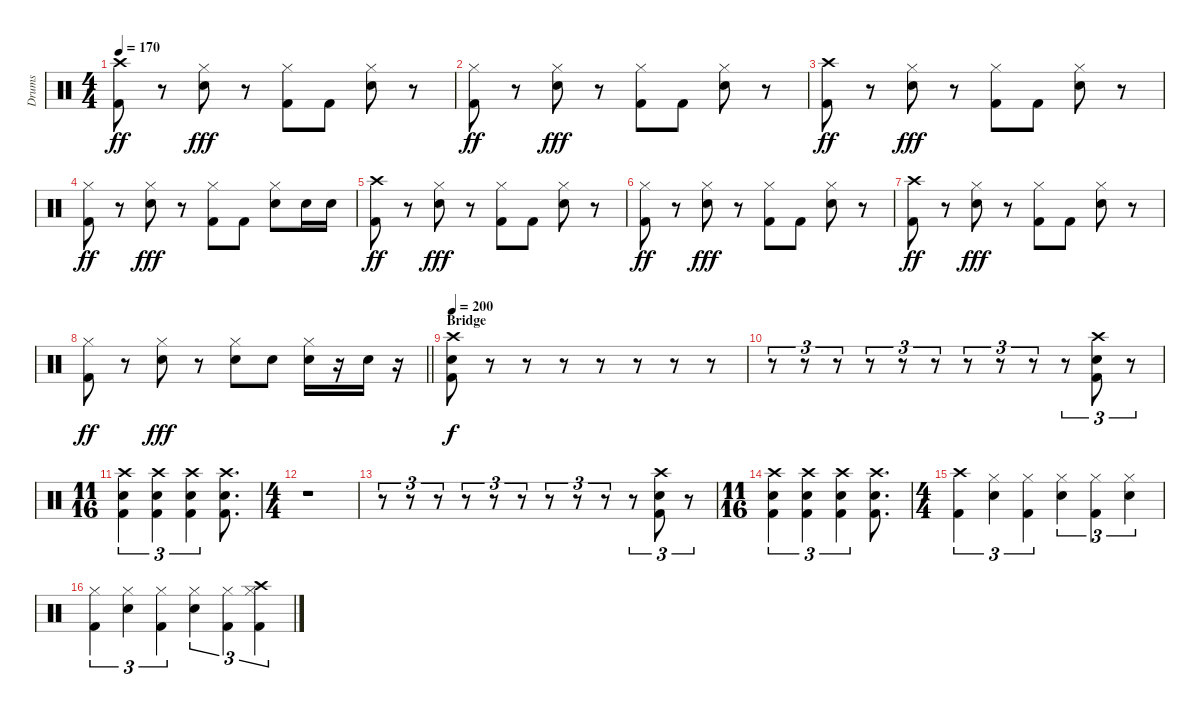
\track ("Drums" "Drums") {instrument percussion}
\staff {score}
\articulation defaults
\ts (4 4)
\tempo 170
\clef neutral
\ks c
("Crash high (hit)" "Kick (hit) 2").8{dy ff} r.8 ("Hi-Hat (closed)" "Snare (hit) 2").8{dy fff} r.8 ("Hi-Hat (closed)" "Kick (hit) 2").8 "Kick (hit) 2".8 ("Hi-Hat (closed)" "Snare (hit) 2").8 r.8 |
("Hi-Hat (closed)" "Kick (hit) 2").8{dy ff} r.8 ("Hi-Hat (closed)" "Snare (hit) 2").8{dy fff} r.8 ("Hi-Hat (closed)" "Kick (hit) 2").8 "Kick (hit) 2".8 ("Hi-Hat (closed)" "Snare (hit) 2").8 r.8 |
("Crash high (hit)" "Kick (hit) 2").8{dy ff} r.8 ("Hi-Hat (closed)" "Snare (hit) 2").8{dy fff} r.8 ("Hi-Hat (closed)" "Kick (hit) 2").8 "Kick (hit) 2".8 ("Hi-Hat (closed)" "Snare (hit) 2").8 r.8 |
("Hi-Hat (closed)" "Kick (hit) 2").8{dy ff} r.8 ("Hi-Hat (closed)" "Snare (hit) 2").8{dy fff} r.8 ("Hi-Hat (closed)" "Kick (hit) 2").8 "Kick (hit) 2".8 ("Hi-Hat (closed)" "Snare (hit) 2").8 "Snare (hit) 2".16 "Snare (hit) 2".16 |
("Crash high (hit)" "Kick (hit) 2").8{dy ff} r.8 ("Hi-Hat (closed)" "Snare (hit) 2").8{dy fff} r.8 ("Hi-Hat (closed)" "Kick (hit) 2").8 "Kick (hit) 2".8 ("Hi-Hat (closed)" "Snare (hit) 2").8 r.8 |
("Hi-Hat (closed)" "Kick (hit) 2").8{dy ff} r.8 ("Hi-Hat (closed)" "Snare (hit) 2").8{dy fff} r.8 ("Hi-Hat (closed)" "Kick (hit) 2").8 "Kick (hit) 2".8 ("Hi-Hat (closed)" "Snare (hit) 2").8 r.8 |
("Crash high (hit)" "Kick (hit) 2").8{dy ff} r.8 ("Hi-Hat (closed)" "Snare (hit) 2").8{dy fff} r.8 ("Hi-Hat (closed)" "Kick (hit) 2").8 "Kick (hit) 2".8 ("Hi-Hat (closed)" "Snare (hit) 2").8 r.8 |
\barLineRight lightlight
("Hi-Hat (closed)" "Kick (hit) 2").8{dy ff} r.8 ("Hi-Hat (closed)" "Snare (hit) 2").8{dy fff} r.8 ("Hi-Hat (closed)" "Snare (hit) 2").8 "Snare (hit) 2".8 ("Hi-Hat (closed)" "Snare (hit) 2").16 r.16 "Snare (hit) 2".16 r.16 |
\section ("" "Bridge")
\tempo 200
("Crash high (hit)" "Kick (hit) 2" "Snare (hit) 2").8{dy f} r.8 r.8 r.8 r.8 r.8 r.8 r.8 |
r.8{tu (3 2)} r.8{tu (3 2)} r.8{tu (3 2)} r.8{tu (3 2)} r.8{tu (3 2)} r.8{tu (3 2)} r.8{tu (3 2)} r.8{tu (3 2)} r.8{tu (3 2)} r.8{tu (3 2)} ("Snare (hit) 2" "Kick (hit) 2" "Crash high (hit)").8{tu (3 2)} r.8{tu (3 2)} |
\ts (11 16)
("Crash high (hit)" "Kick (hit) 2" "Snare (hit) 2").4{tu (3 2)} ("Crash high (hit)" "Kick (hit) 2" "Snare (hit) 2").4{tu (3 2)} ("Crash high (hit)" "Kick (hit) 2" "Snare (hit) 2").4{tu (3 2)} ("Crash high (hit)" "Kick (hit) 2" "Snare (hit) 2").8{d} |
\ts (4 4)
r.1 |
r.8{tu (3 2)} r.8{tu (3 2)} r.8{tu (3 2)} r.8{tu (3 2)} r.8{tu (3 2)} r.8{tu (3 2)} r.8{tu (3 2)} r.8{tu (3 2)} r.8{tu (3 2)} r.8{tu (3 2)} ("Snare (hit) 2" "Kick (hit) 2" "Crash high (hit)").8{tu (3 2)} r.8{tu (3 2)} |
\ts (11 16)
("Crash high (hit)" "Kick (hit) 2" "Snare (hit) 2").4{tu (3 2)} ("Crash high (hit)" "Kick (hit) 2" "Snare (hit) 2").4{tu (3 2)} ("Crash high (hit)" "Kick (hit) 2" "Snare (hit) 2").4{tu (3 2)} ("Crash high (hit)" "Kick (hit) 2" "Snare (hit) 2").8{d} |
\ts (4 4)
("Crash high (hit)" "Kick (hit) 2").4{tu (3 2)} ("Hi-Hat (closed)" "Snare (hit) 2").4{tu (3 2)} ("Hi-Hat (closed)" "Kick (hit) 2").4{tu (3 2)} ("Hi-Hat (closed)" "Snare (hit) 2").4{tu (3 2)} ("Hi-Hat (closed)" "Kick (hit) 2").4{tu (3 2)} ("Hi-Hat (closed)" "Snare (hit) 2").4{tu (3 2)} |
("Kick (hit) 2" "Hi-Hat (closed)").4{tu (3 2)} ("Snare (hit) 2" "Hi-Hat (closed)").4{tu (3 2)} ("Kick (hit) 2" "Hi-Hat (closed)").4{tu (3 2)} ("Snare (hit) 2" "Hi-Hat (closed)").4{tu (3 2)} ("Kick (hit) 2" "Hi-Hat (closed)").4{tu (3 2)} ("Kick (hit) 2" "Hi-Hat (closed)" "Crash high (hit)").4{tu (3 2)}
